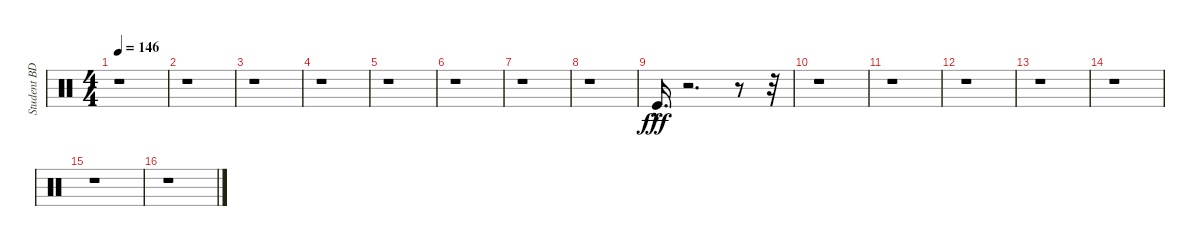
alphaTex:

\track ("Student BD" "Student BD") {instrument percussion}
\staff {score}
\articulation defaults
\ts (4 4)
\tempo 146
\clef neutral
\ks c
r.1{dy fff} |
r.1 |
r.1 |
r.1 |
r.1 |
r.1 |
r.1 |
r.1 |
"Kick (hit)"{hac}.16{d} r.2{d} r.8 r.32 |
r.1 |
r.1 |
r.1 |
r.1 |
r.1 |
r.1 |
r.1
